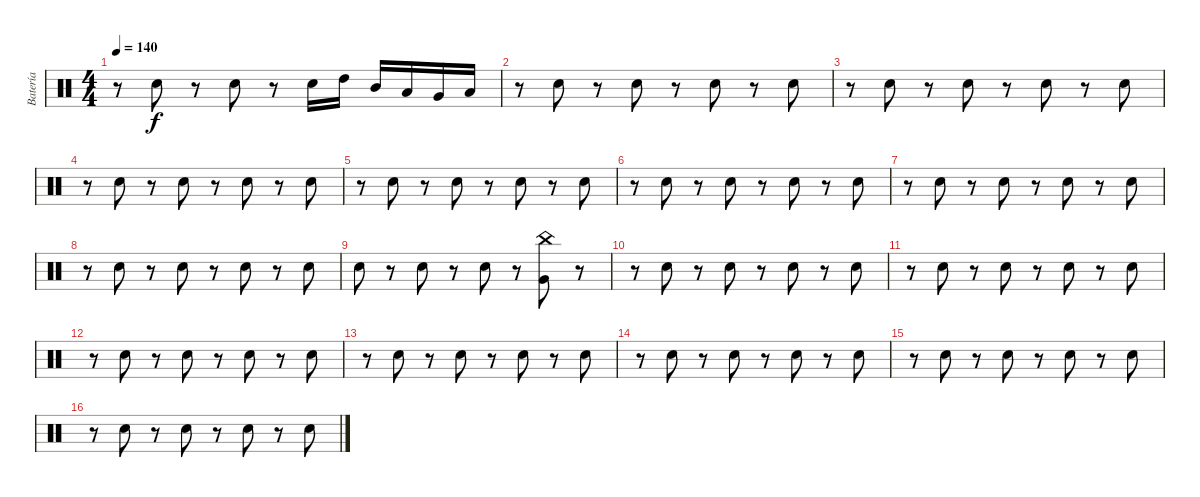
\track ("Batería" "Batería") {instrument percussion}
\staff {score}
\articulation defaults
\ts (4 4)
\tempo 140
\clef neutral
\ks c
r.8{dy mp} "Snare (hit) 2".8{dy f} r.8 "Snare (hit) 2".8 r.8 "Snare (hit) 2".16 "High Tom (hit)".16 "Mid Tom (hit)".16 "Low Tom (hit)".16 "Very Low Tom (hit)".16 "Low Floor Tom (hit)".16 |
r.8 "Snare (hit) 2".8 r.8 "Snare (hit) 2".8 r.8 "Snare (hit) 2".8 r.8 "Snare (hit) 2".8 |
r.8 "Snare (hit) 2".8 r.8 "Snare (hit) 2".8 r.8 "Snare (hit) 2".8 r.8 "Snare (hit) 2".8 |
r.8 "Snare (hit) 2".8 r.8 "Snare (hit) 2".8 r.8 "Snare (hit) 2".8 r.8 "Snare (hit) 2".8 |
r.8 "Snare (hit) 2".8 r.8 "Snare (hit) 2".8 r.8 "Snare (hit) 2".8 r.8 "Snare (hit) 2".8 |
r.8 "Snare (hit) 2".8 r.8 "Snare (hit) 2".8 r.8 "Snare (hit) 2".8 r.8 "Snare (hit) 2".8 |
r.8 "Snare (hit) 2".8 r.8 "Snare (hit) 2".8 r.8 "Snare (hit) 2".8 r.8 "Snare (hit) 2".8 |
r.8 "Snare (hit) 2".8 r.8 "Snare (hit) 2".8 r.8 "Snare (hit) 2".8 r.8 "Snare (hit) 2".8 |
"Snare (hit) 2".8 r.8 "Snare (hit) 2".8 r.8 "Snare (hit) 2".8 r.8 ("China (hit)" "Very Low Tom (hit)").8 r.8 |
r.8 "Snare (hit) 2".8 r.8 "Snare (hit) 2".8 r.8 "Snare (hit) 2".8 r.8 "Snare (hit) 2".8 |
r.8 "Snare (hit) 2".8 r.8 "Snare (hit) 2".8 r.8 "Snare (hit) 2".8 r.8 "Snare (hit) 2".8 |
r.8 "Snare (hit) 2".8 r.8 "Snare (hit) 2".8 r.8 "Snare (hit) 2".8 r.8 "Snare (hit) 2".8 |
r.8 "Snare (hit) 2".8 r.8 "Snare (hit) 2".8 r.8 "Snare (hit) 2".8 r.8 "Snare (hit) 2".8 |
r.8 "Snare (hit) 2".8 r.8 "Snare (hit) 2".8 r.8 "Snare (hit) 2".8 r.8 "Snare (hit) 2".8 |
r.8 "Snare (hit) 2".8 r.8 "Snare (hit) 2".8 r.8 "Snare (hit) 2".8 r.8 "Snare (hit) 2".8 |
r.8 "Snare (hit) 2".8 r.8 "Snare (hit) 2".8 r.8 "Snare (hit) 2".8 r.8 "Snare (hit) 2".8
